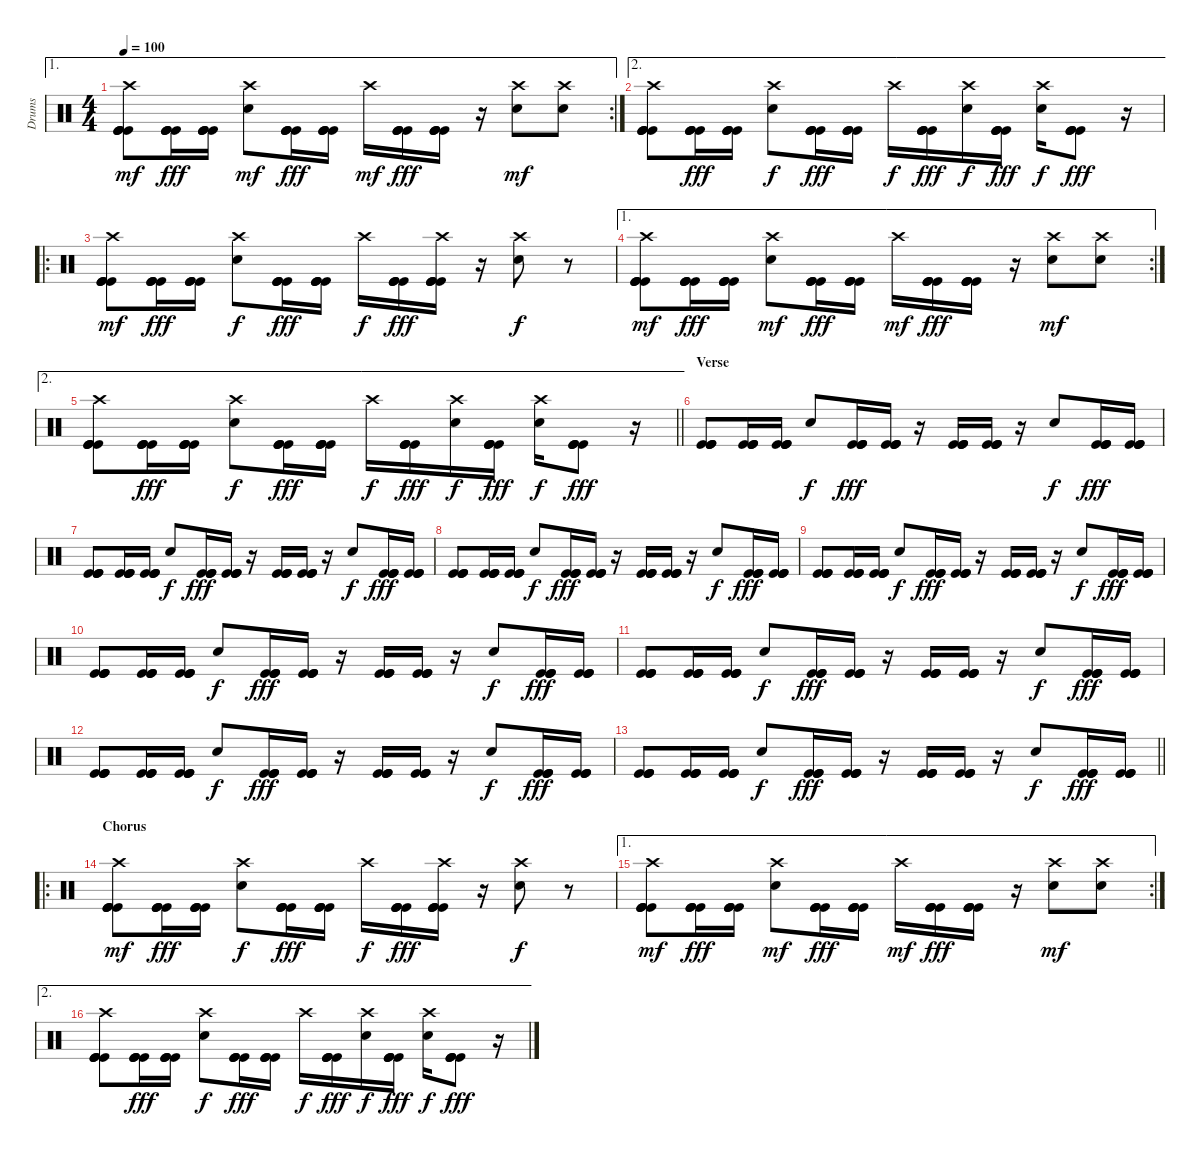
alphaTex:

\track ("Drums" "Drums") {instrument percussion}
\staff {score}
\articulation defaults
\ae 1
\rc 2
\ts (4 4)
\tempo 100
\clef neutral
\ks c
("Kick (hit)" "Kick (hit)" "Kick (hit)" "Kick (hit)" "Crash high (hit)").8{dy mf} ("Kick (hit)" "Kick (hit)" "Kick (hit)" "Kick (hit)").16{dy fff} ("Kick (hit)" "Kick (hit)" "Kick (hit)" "Kick (hit)").16 ("Electric Snare (hit)" "Crash high (hit)").8{dy mf} ("Kick (hit)" "Kick (hit)" "Kick (hit)" "Kick (hit)").16{dy fff} ("Kick (hit)" "Kick (hit)" "Kick (hit)" "Kick (hit)").16 "Crash high (hit)".16{dy mf} ("Kick (hit)" "Kick (hit)" "Kick (hit)" "Kick (hit)").16{dy fff} ("Kick (hit)" "Kick (hit)" "Kick (hit)" "Kick (hit)").16 r.16 ("Electric Snare (hit)" "Crash high (hit)").8{dy mf} ("Electric Snare (hit)" "Crash high (hit)").8 |
\ae 2
("Kick (hit)" "Kick (hit)" "Kick (hit)" "Kick (hit)" "Crash high (hit)").8 ("Kick (hit)" "Kick (hit)" "Kick (hit)" "Kick (hit)").16{dy fff} ("Kick (hit)" "Kick (hit)" "Kick (hit)" "Kick (hit)").16 ("Electric Snare (hit)" "Crash high (hit)").8{dy f} ("Kick (hit)" "Kick (hit)" "Kick (hit)" "Kick (hit)").16{dy fff} ("Kick (hit)" "Kick (hit)" "Kick (hit)" "Kick (hit)").16 "Crash high (hit)".16{dy f} ("Kick (hit)" "Kick (hit)" "Kick (hit)" "Kick (hit)").16{dy fff} ("Electric Snare (hit)" "Crash high (hit)").16{dy f} ("Kick (hit)" "Kick (hit)" "Kick (hit)" "Kick (hit)").16{dy fff} ("Electric Snare (hit)" "Crash high (hit)").16{dy f} ("Kick (hit)" "Kick (hit)" "Kick (hit)" "Kick (hit)").8{dy fff} r.16 |
\ro
("Kick (hit)" "Kick (hit)" "Kick (hit)" "Kick (hit)" "Crash high (hit)").8{dy mf} ("Kick (hit)" "Kick (hit)" "Kick (hit)" "Kick (hit)").16{dy fff} ("Kick (hit)" "Kick (hit)" "Kick (hit)" "Kick (hit)").16 ("Electric Snare (hit)" "Crash high (hit)").8{dy f} ("Kick (hit)" "Kick (hit)" "Kick (hit)" "Kick (hit)").16{dy fff} ("Kick (hit)" "Kick (hit)" "Kick (hit)" "Kick (hit)").16 "Crash high (hit)".16{dy f} ("Kick (hit)" "Kick (hit)" "Kick (hit)" "Kick (hit)").16{dy fff} ("Kick (hit)" "Kick (hit)" "Kick (hit)" "Kick (hit)" "Crash high (hit)").16 r.16 ("Electric Snare (hit)" "Crash high (hit)").8{dy f} r.8 |
\ae 1
\rc 2
("Kick (hit)" "Kick (hit)" "Kick (hit)" "Kick (hit)" "Crash high (hit)").8{dy mf} ("Kick (hit)" "Kick (hit)" "Kick (hit)" "Kick (hit)").16{dy fff} ("Kick (hit)" "Kick (hit)" "Kick (hit)" "Kick (hit)").16 ("Electric Snare (hit)" "Crash high (hit)").8{dy mf} ("Kick (hit)" "Kick (hit)" "Kick (hit)" "Kick (hit)").16{dy fff} ("Kick (hit)" "Kick (hit)" "Kick (hit)" "Kick (hit)").16 "Crash high (hit)".16{dy mf} ("Kick (hit)" "Kick (hit)" "Kick (hit)" "Kick (hit)").16{dy fff} ("Kick (hit)" "Kick (hit)" "Kick (hit)" "Kick (hit)").16 r.16 ("Electric Snare (hit)" "Crash high (hit)").8{dy mf} ("Electric Snare (hit)" "Crash high (hit)").8 |
\ae 2
\barLineRight lightlight
("Kick (hit)" "Kick (hit)" "Kick (hit)" "Kick (hit)" "Crash high (hit)").8 ("Kick (hit)" "Kick (hit)" "Kick (hit)" "Kick (hit)").16{dy fff} ("Kick (hit)" "Kick (hit)" "Kick (hit)" "Kick (hit)").16 ("Electric Snare (hit)" "Crash high (hit)").8{dy f} ("Kick (hit)" "Kick (hit)" "Kick (hit)" "Kick (hit)").16{dy fff} ("Kick (hit)" "Kick (hit)" "Kick (hit)" "Kick (hit)").16 "Crash high (hit)".16{dy f} ("Kick (hit)" "Kick (hit)" "Kick (hit)" "Kick (hit)").16{dy fff} ("Electric Snare (hit)" "Crash high (hit)").16{dy f} ("Kick (hit)" "Kick (hit)" "Kick (hit)" "Kick (hit)").16{dy fff} ("Electric Snare (hit)" "Crash high (hit)").16{dy f} ("Kick (hit)" "Kick (hit)" "Kick (hit)" "Kick (hit)").8{dy fff} r.16 |
\section ("" "Verse")
("Kick (hit)" "Kick (hit)" "Kick (hit)" "Kick (hit)").8 ("Kick (hit)" "Kick (hit)" "Kick (hit)" "Kick (hit)").16 ("Kick (hit)" "Kick (hit)" "Kick (hit)" "Kick (hit)").16 "Electric Snare (hit)".8{dy f} ("Kick (hit)" "Kick (hit)" "Kick (hit)" "Kick (hit)").16{dy fff} ("Kick (hit)" "Kick (hit)" "Kick (hit)" "Kick (hit)").16 r.16 ("Kick (hit)" "Kick (hit)" "Kick (hit)" "Kick (hit)").16 ("Kick (hit)" "Kick (hit)" "Kick (hit)" "Kick (hit)").16 r.16 "Electric Snare (hit)".8{dy f} ("Kick (hit)" "Kick (hit)" "Kick (hit)" "Kick (hit)").16{dy fff} ("Kick (hit)" "Kick (hit)" "Kick (hit)" "Kick (hit)").16 |
("Kick (hit)" "Kick (hit)" "Kick (hit)" "Kick (hit)").8 ("Kick (hit)" "Kick (hit)" "Kick (hit)" "Kick (hit)").16 ("Kick (hit)" "Kick (hit)" "Kick (hit)" "Kick (hit)").16 "Electric Snare (hit)".8{dy f} ("Kick (hit)" "Kick (hit)" "Kick (hit)" "Kick (hit)").16{dy fff} ("Kick (hit)" "Kick (hit)" "Kick (hit)" "Kick (hit)").16 r.16 ("Kick (hit)" "Kick (hit)" "Kick (hit)" "Kick (hit)").16 ("Kick (hit)" "Kick (hit)" "Kick (hit)" "Kick (hit)").16 r.16 "Electric Snare (hit)".8{dy f} ("Kick (hit)" "Kick (hit)" "Kick (hit)" "Kick (hit)").16{dy fff} ("Kick (hit)" "Kick (hit)" "Kick (hit)" "Kick (hit)").16 |
("Kick (hit)" "Kick (hit)" "Kick (hit)" "Kick (hit)").8 ("Kick (hit)" "Kick (hit)" "Kick (hit)" "Kick (hit)").16 ("Kick (hit)" "Kick (hit)" "Kick (hit)" "Kick (hit)").16 "Electric Snare (hit)".8{dy f} ("Kick (hit)" "Kick (hit)" "Kick (hit)" "Kick (hit)").16{dy fff} ("Kick (hit)" "Kick (hit)" "Kick (hit)" "Kick (hit)").16 r.16 ("Kick (hit)" "Kick (hit)" "Kick (hit)" "Kick (hit)").16 ("Kick (hit)" "Kick (hit)" "Kick (hit)" "Kick (hit)").16 r.16 "Electric Snare (hit)".8{dy f} ("Kick (hit)" "Kick (hit)" "Kick (hit)" "Kick (hit)").16{dy fff} ("Kick (hit)" "Kick (hit)" "Kick (hit)" "Kick (hit)").16 |
("Kick (hit)" "Kick (hit)" "Kick (hit)" "Kick (hit)").8 ("Kick (hit)" "Kick (hit)" "Kick (hit)" "Kick (hit)").16 ("Kick (hit)" "Kick (hit)" "Kick (hit)" "Kick (hit)").16 "Electric Snare (hit)".8{dy f} ("Kick (hit)" "Kick (hit)" "Kick (hit)" "Kick (hit)").16{dy fff} ("Kick (hit)" "Kick (hit)" "Kick (hit)" "Kick (hit)").16 r.16 ("Kick (hit)" "Kick (hit)" "Kick (hit)" "Kick (hit)").16 ("Kick (hit)" "Kick (hit)" "Kick (hit)" "Kick (hit)").16 r.16 "Electric Snare (hit)".8{dy f} ("Kick (hit)" "Kick (hit)" "Kick (hit)" "Kick (hit)").16{dy fff} ("Kick (hit)" "Kick (hit)" "Kick (hit)" "Kick (hit)").16 |
("Kick (hit)" "Kick (hit)" "Kick (hit)" "Kick (hit)").8 ("Kick (hit)" "Kick (hit)" "Kick (hit)" "Kick (hit)").16 ("Kick (hit)" "Kick (hit)" "Kick (hit)" "Kick (hit)").16 "Electric Snare (hit)".8{dy f} ("Kick (hit)" "Kick (hit)" "Kick (hit)" "Kick (hit)").16{dy fff} ("Kick (hit)" "Kick (hit)" "Kick (hit)" "Kick (hit)").16 r.16 ("Kick (hit)" "Kick (hit)" "Kick (hit)" "Kick (hit)").16 ("Kick (hit)" "Kick (hit)" "Kick (hit)" "Kick (hit)").16 r.16 "Electric Snare (hit)".8{dy f} ("Kick (hit)" "Kick (hit)" "Kick (hit)" "Kick (hit)").16{dy fff} ("Kick (hit)" "Kick (hit)" "Kick (hit)" "Kick (hit)").16 |
("Kick (hit)" "Kick (hit)" "Kick (hit)" "Kick (hit)").8 ("Kick (hit)" "Kick (hit)" "Kick (hit)" "Kick (hit)").16 ("Kick (hit)" "Kick (hit)" "Kick (hit)" "Kick (hit)").16 "Electric Snare (hit)".8{dy f} ("Kick (hit)" "Kick (hit)" "Kick (hit)" "Kick (hit)").16{dy fff} ("Kick (hit)" "Kick (hit)" "Kick (hit)" "Kick (hit)").16 r.16 ("Kick (hit)" "Kick (hit)" "Kick (hit)" "Kick (hit)").16 ("Kick (hit)" "Kick (hit)" "Kick (hit)" "Kick (hit)").16 r.16 "Electric Snare (hit)".8{dy f} ("Kick (hit)" "Kick (hit)" "Kick (hit)" "Kick (hit)").16{dy fff} ("Kick (hit)" "Kick (hit)" "Kick (hit)" "Kick (hit)").16 |
("Kick (hit)" "Kick (hit)" "Kick (hit)" "Kick (hit)").8 ("Kick (hit)" "Kick (hit)" "Kick (hit)" "Kick (hit)").16 ("Kick (hit)" "Kick (hit)" "Kick (hit)" "Kick (hit)").16 "Electric Snare (hit)".8{dy f} ("Kick (hit)" "Kick (hit)" "Kick (hit)" "Kick (hit)").16{dy fff} ("Kick (hit)" "Kick (hit)" "Kick (hit)" "Kick (hit)").16 r.16 ("Kick (hit)" "Kick (hit)" "Kick (hit)" "Kick (hit)").16 ("Kick (hit)" "Kick (hit)" "Kick (hit)" "Kick (hit)").16 r.16 "Electric Snare (hit)".8{dy f} ("Kick (hit)" "Kick (hit)" "Kick (hit)" "Kick (hit)").16{dy fff} ("Kick (hit)" "Kick (hit)" "Kick (hit)" "Kick (hit)").16 |
\barLineRight lightlight
("Kick (hit)" "Kick (hit)" "Kick (hit)" "Kick (hit)").8 ("Kick (hit)" "Kick (hit)" "Kick (hit)" "Kick (hit)").16 ("Kick (hit)" "Kick (hit)" "Kick (hit)" "Kick (hit)").16 "Electric Snare (hit)".8{dy f} ("Kick (hit)" "Kick (hit)" "Kick (hit)" "Kick (hit)").16{dy fff} ("Kick (hit)" "Kick (hit)" "Kick (hit)" "Kick (hit)").16 r.16 ("Kick (hit)" "Kick (hit)" "Kick (hit)" "Kick (hit)").16 ("Kick (hit)" "Kick (hit)" "Kick (hit)" "Kick (hit)").16 r.16 "Electric Snare (hit)".8{dy f} ("Kick (hit)" "Kick (hit)" "Kick (hit)" "Kick (hit)").16{dy fff} ("Kick (hit)" "Kick (hit)" "Kick (hit)" "Kick (hit)").16 |
\ro
\section ("" "Chorus")
("Kick (hit)" "Kick (hit)" "Kick (hit)" "Kick (hit)" "Crash high (hit)").8{dy mf} ("Kick (hit)" "Kick (hit)" "Kick (hit)" "Kick (hit)").16{dy fff} ("Kick (hit)" "Kick (hit)" "Kick (hit)" "Kick (hit)").16 ("Electric Snare (hit)" "Crash high (hit)").8{dy f} ("Kick (hit)" "Kick (hit)" "Kick (hit)" "Kick (hit)").16{dy fff} ("Kick (hit)" "Kick (hit)" "Kick (hit)" "Kick (hit)").16 "Crash high (hit)".16{dy f} ("Kick (hit)" "Kick (hit)" "Kick (hit)" "Kick (hit)").16{dy fff} ("Kick (hit)" "Kick (hit)" "Kick (hit)" "Kick (hit)" "Crash high (hit)").16 r.16 ("Electric Snare (hit)" "Crash high (hit)").8{dy f} r.8 |
\ae 1
\rc 2
("Kick (hit)" "Kick (hit)" "Kick (hit)" "Kick (hit)" "Crash high (hit)").8{dy mf} ("Kick (hit)" "Kick (hit)" "Kick (hit)" "Kick (hit)").16{dy fff} ("Kick (hit)" "Kick (hit)" "Kick (hit)" "Kick (hit)").16 ("Electric Snare (hit)" "Crash high (hit)").8{dy mf} ("Kick (hit)" "Kick (hit)" "Kick (hit)" "Kick (hit)").16{dy fff} ("Kick (hit)" "Kick (hit)" "Kick (hit)" "Kick (hit)").16 "Crash high (hit)".16{dy mf} ("Kick (hit)" "Kick (hit)" "Kick (hit)" "Kick (hit)").16{dy fff} ("Kick (hit)" "Kick (hit)" "Kick (hit)" "Kick (hit)").16 r.16 ("Electric Snare (hit)" "Crash high (hit)").8{dy mf} ("Electric Snare (hit)" "Crash high (hit)").8 |
\ae 2
("Kick (hit)" "Kick (hit)" "Kick (hit)" "Kick (hit)" "Crash high (hit)").8 ("Kick (hit)" "Kick (hit)" "Kick (hit)" "Kick (hit)").16{dy fff} ("Kick (hit)" "Kick (hit)" "Kick (hit)" "Kick (hit)").16 ("Electric Snare (hit)" "Crash high (hit)").8{dy f} ("Kick (hit)" "Kick (hit)" "Kick (hit)" "Kick (hit)").16{dy fff} ("Kick (hit)" "Kick (hit)" "Kick (hit)" "Kick (hit)").16 "Crash high (hit)".16{dy f} ("Kick (hit)" "Kick (hit)" "Kick (hit)" "Kick (hit)").16{dy fff} ("Electric Snare (hit)" "Crash high (hit)").16{dy f} ("Kick (hit)" "Kick (hit)" "Kick (hit)" "Kick (hit)").16{dy fff} ("Electric Snare (hit)" "Crash high (hit)").16{dy f} ("Kick (hit)" "Kick (hit)" "Kick (hit)" "Kick (hit)").8{dy fff} r.16
